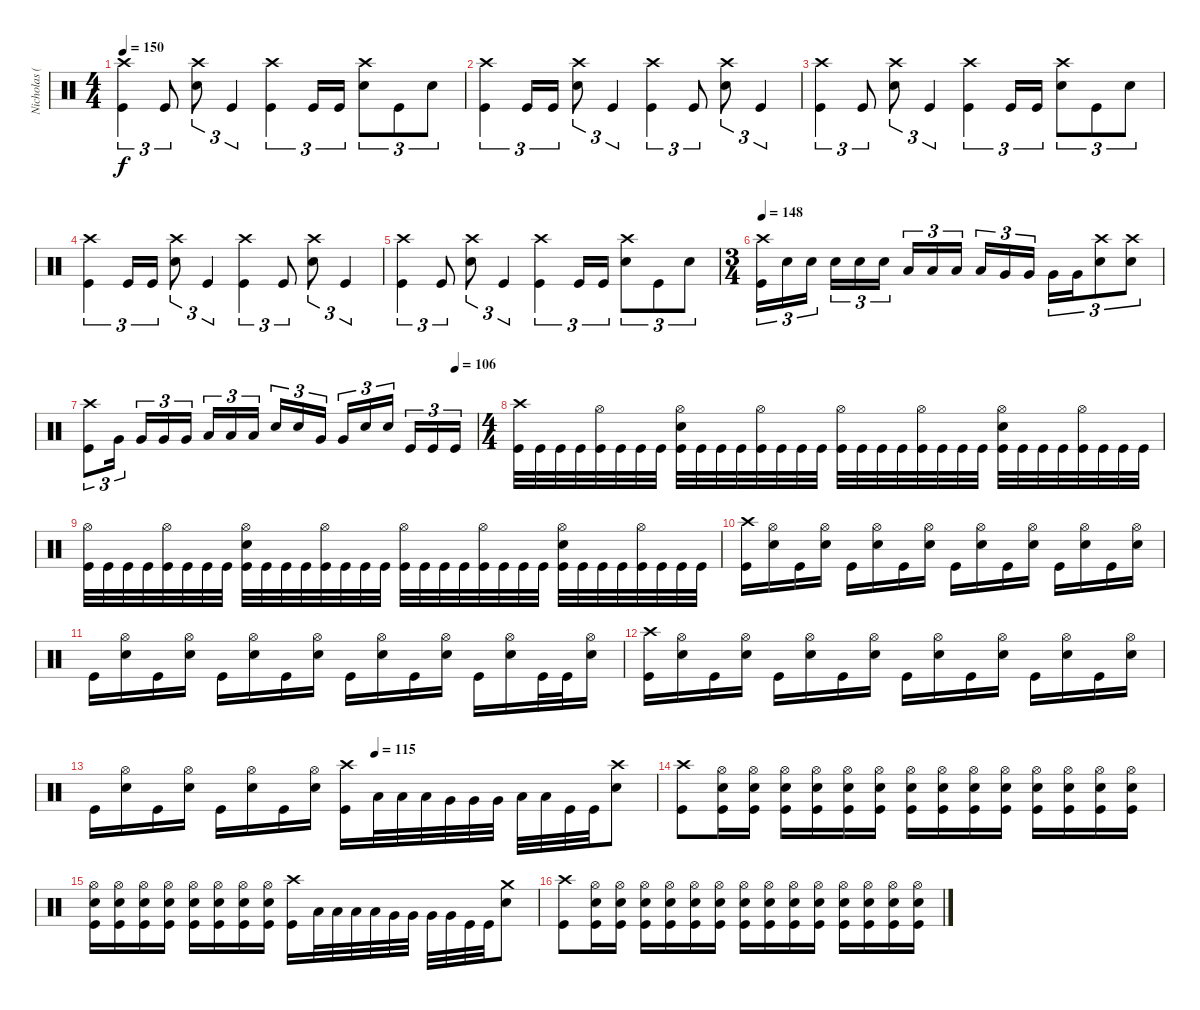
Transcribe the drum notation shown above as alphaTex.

\track ("Nicholas (Drums)" "Nicholas (") {instrument percussion}
\staff {score}
\articulation defaults
\ts (4 4)
\tempo 150
\clef neutral
\ks c
("Crash high (hit)" "Kick (hit)").4{tu (3 2) dy f} "Kick (hit)".8{tu (3 2)} ("Crash high (hit)" "Electric Snare (hit)").8{tu (3 2)} "Kick (hit)".4{tu (3 2)} ("Crash high (hit)" "Kick (hit)").4{tu (3 2)} "Kick (hit)".16{tu (3 2)} "Kick (hit)".16{tu (3 2)} ("Crash high (hit)" "Electric Snare (hit)").8{tu (3 2)} "Kick (hit)".8{tu (3 2)} "Electric Snare (hit)".8{tu (3 2)} |
("Crash high (hit)" "Kick (hit)").4{tu (3 2)} "Kick (hit)".16{tu (3 2)} "Kick (hit)".16{tu (3 2)} ("Crash high (hit)" "Electric Snare (hit)").8{tu (3 2)} "Kick (hit)".4{tu (3 2)} ("Crash high (hit)" "Kick (hit)").4{tu (3 2)} "Kick (hit)".8{tu (3 2)} ("Crash high (hit)" "Electric Snare (hit)").8{tu (3 2)} "Kick (hit)".4{tu (3 2)} |
("Crash high (hit)" "Kick (hit)").4{tu (3 2)} "Kick (hit)".8{tu (3 2)} ("Crash high (hit)" "Electric Snare (hit)").8{tu (3 2)} "Kick (hit)".4{tu (3 2)} ("Crash high (hit)" "Kick (hit)").4{tu (3 2)} "Kick (hit)".16{tu (3 2)} "Kick (hit)".16{tu (3 2)} ("Crash high (hit)" "Electric Snare (hit)").8{tu (3 2)} "Kick (hit)".8{tu (3 2)} "Electric Snare (hit)".8{tu (3 2)} |
("Crash high (hit)" "Kick (hit)").4{tu (3 2)} "Kick (hit)".16{tu (3 2)} "Kick (hit)".16{tu (3 2)} ("Crash high (hit)" "Electric Snare (hit)").8{tu (3 2)} "Kick (hit)".4{tu (3 2)} ("Crash high (hit)" "Kick (hit)").4{tu (3 2)} "Kick (hit)".8{tu (3 2)} ("Crash high (hit)" "Electric Snare (hit)").8{tu (3 2)} "Kick (hit)".4{tu (3 2)} |
("Crash high (hit)" "Kick (hit)").4{tu (3 2)} "Kick (hit)".8{tu (3 2)} ("Crash high (hit)" "Electric Snare (hit)").8{tu (3 2)} "Kick (hit)".4{tu (3 2)} ("Crash high (hit)" "Kick (hit)").4{tu (3 2)} "Kick (hit)".16{tu (3 2)} "Kick (hit)".16{tu (3 2)} ("Crash high (hit)" "Electric Snare (hit)").8{tu (3 2)} "Kick (hit)".8{tu (3 2)} "Electric Snare (hit)".8{tu (3 2)} |
\ts (3 4)
\tempo 148
("Crash high (hit)" "Kick (hit)").16{tu (3 2)} "Electric Snare (hit)".16{tu (3 2)} "Electric Snare (hit)".16{tu (3 2)} "Electric Snare (hit)".16{tu (3 2)} "Electric Snare (hit)".16{tu (3 2)} "Electric Snare (hit)".16{tu (3 2)} "Low Tom (hit)".16{tu (3 2)} "Low Tom (hit)".16{tu (3 2)} "Low Tom (hit)".16{tu (3 2)} "Low Tom (hit)".16{tu (3 2)} "Very Low Tom (hit)".16{tu (3 2)} "Very Low Tom (hit)".16{tu (3 2)} "Very Low Tom (hit)".16{tu (3 2)} "Very Low Tom (hit)".16{tu (3 2)} ("Crash high (hit)" "Electric Snare (hit)").8{tu (3 2)} ("Crash high (hit)" "Electric Snare (hit)").8{tu (3 2)} |
\tempo (106 0.9444444444444444)
("Crash high (hit)" "Kick (hit)").8{tu (3 2)} "Very Low Tom (hit)".16{tu (3 2)} "Very Low Tom (hit)".16{tu (3 2)} "Very Low Tom (hit)".16{tu (3 2)} "Very Low Tom (hit)".16{tu (3 2)} "Low Floor Tom (hit)".16{tu (3 2)} "Low Floor Tom (hit)".16{tu (3 2)} "Low Floor Tom (hit)".16{tu (3 2)} "Electric Snare (hit)".16{tu (3 2)} "Electric Snare (hit)".16{tu (3 2)} "Very Low Tom (hit)".16{tu (3 2)} "Very Low Tom (hit)".16{tu (3 2)} "Electric Snare (hit)".16{tu (3 2)} "Electric Snare (hit)".16{tu (3 2)} "Kick (hit)".16{tu (3 2)} "Kick (hit)".16{tu (3 2)} "Kick (hit)".16{tu (3 2)} |
\ts (4 4)
("Crash high (hit)" "Kick (hit)").32 "Kick (hit)".32 "Kick (hit)".32 "Kick (hit)".32 ("Hi-Hat (open)" "Kick (hit)").32 "Kick (hit)".32 "Kick (hit)".32 "Kick (hit)".32 ("Hi-Hat (open)" "Electric Snare (hit)" "Kick (hit)").32 "Kick (hit)".32 "Kick (hit)".32 "Kick (hit)".32 ("Hi-Hat (open)" "Kick (hit)").32 "Kick (hit)".32 "Kick (hit)".32 "Kick (hit)".32 ("Hi-Hat (open)" "Kick (hit)").32 "Kick (hit)".32 "Kick (hit)".32 "Kick (hit)".32 ("Hi-Hat (open)" "Kick (hit)").32 "Kick (hit)".32 "Kick (hit)".32 "Kick (hit)".32 ("Hi-Hat (open)" "Electric Snare (hit)" "Kick (hit)").32 "Kick (hit)".32 "Kick (hit)".32 "Kick (hit)".32 ("Hi-Hat (open)" "Kick (hit)").32 "Kick (hit)".32 "Kick (hit)".32 "Kick (hit)".32 |
("Hi-Hat (open)" "Kick (hit)").32 "Kick (hit)".32 "Kick (hit)".32 "Kick (hit)".32 ("Hi-Hat (open)" "Kick (hit)").32 "Kick (hit)".32 "Kick (hit)".32 "Kick (hit)".32 ("Hi-Hat (open)" "Electric Snare (hit)" "Kick (hit)").32 "Kick (hit)".32 "Kick (hit)".32 "Kick (hit)".32 ("Hi-Hat (open)" "Kick (hit)").32 "Kick (hit)".32 "Kick (hit)".32 "Kick (hit)".32 ("Hi-Hat (open)" "Kick (hit)").32 "Kick (hit)".32 "Kick (hit)".32 "Kick (hit)".32 ("Hi-Hat (open)" "Kick (hit)").32 "Kick (hit)".32 "Kick (hit)".32 "Kick (hit)".32 ("Hi-Hat (open)" "Electric Snare (hit)" "Kick (hit)").32 "Kick (hit)".32 "Kick (hit)".32 "Kick (hit)".32 ("Hi-Hat (open)" "Kick (hit)").32 "Kick (hit)".32 "Kick (hit)".32 "Kick (hit)".32 |
("Crash high (hit)" "Kick (hit)").16 ("Hi-Hat (open)" "Electric Snare (hit)").16 "Kick (hit)".16 ("Hi-Hat (open)" "Electric Snare (hit)").16 "Kick (hit)".16 ("Hi-Hat (open)" "Electric Snare (hit)").16 "Kick (hit)".16 ("Hi-Hat (open)" "Electric Snare (hit)").16 "Kick (hit)".16 ("Hi-Hat (open)" "Electric Snare (hit)").16 "Kick (hit)".16 ("Hi-Hat (open)" "Electric Snare (hit)").16 "Kick (hit)".16 ("Hi-Hat (open)" "Electric Snare (hit)").16 "Kick (hit)".16 ("Hi-Hat (open)" "Electric Snare (hit)").16 |
"Kick (hit)".16 ("Hi-Hat (open)" "Electric Snare (hit)").16 "Kick (hit)".16 ("Hi-Hat (open)" "Electric Snare (hit)").16 "Kick (hit)".16 ("Hi-Hat (open)" "Electric Snare (hit)").16 "Kick (hit)".16 ("Hi-Hat (open)" "Electric Snare (hit)").16 "Kick (hit)".16 ("Hi-Hat (open)" "Electric Snare (hit)").16 "Kick (hit)".16 ("Hi-Hat (open)" "Electric Snare (hit)").16 "Kick (hit)".16 ("Hi-Hat (open)" "Electric Snare (hit)").16 "Kick (hit)".32 "Kick (hit)".32 ("Hi-Hat (open)" "Electric Snare (hit)").16 |
("Crash high (hit)" "Kick (hit)").16 ("Hi-Hat (open)" "Electric Snare (hit)").16 "Kick (hit)".16 ("Hi-Hat (open)" "Electric Snare (hit)").16 "Kick (hit)".16 ("Hi-Hat (open)" "Electric Snare (hit)").16 "Kick (hit)".16 ("Hi-Hat (open)" "Electric Snare (hit)").16 "Kick (hit)".16 ("Hi-Hat (open)" "Electric Snare (hit)").16 "Kick (hit)".16 ("Hi-Hat (open)" "Electric Snare (hit)").16 "Kick (hit)".16 ("Hi-Hat (open)" "Electric Snare (hit)").16 "Kick (hit)".16 ("Hi-Hat (open)" "Electric Snare (hit)").16 |
\tempo (115 0.5)
"Kick (hit)".16 ("Hi-Hat (open)" "Electric Snare (hit)").16 "Kick (hit)".16 ("Hi-Hat (open)" "Electric Snare (hit)").16 "Kick (hit)".16 ("Hi-Hat (open)" "Electric Snare (hit)").16 "Kick (hit)".16 ("Hi-Hat (open)" "Electric Snare (hit)").16 ("Crash high (hit)" "Kick (hit)").16 "Low Tom (hit)".32 "Low Tom (hit)".32 "Low Tom (hit)".32 "Very Low Tom (hit)".32 "Very Low Tom (hit)".32 "Very Low Tom (hit)".32 "Low Floor Tom (hit)".32 "Low Floor Tom (hit)".32 "Kick (hit)".32 "Kick (hit)".32 ("Crash high (hit)" "Electric Snare (hit)").8 |
("Crash high (hit)" "Kick (hit)").8 ("Hi-Hat (open)" "Electric Snare (hit)" "Kick (hit)").16 ("Hi-Hat (open)" "Electric Snare (hit)" "Kick (hit)").16 ("Hi-Hat (open)" "Electric Snare (hit)" "Kick (hit)").16 ("Hi-Hat (open)" "Electric Snare (hit)" "Kick (hit)").16 ("Hi-Hat (open)" "Electric Snare (hit)" "Kick (hit)").16 ("Hi-Hat (open)" "Electric Snare (hit)" "Kick (hit)").16 ("Hi-Hat (open)" "Electric Snare (hit)" "Kick (hit)").16 ("Hi-Hat (open)" "Electric Snare (hit)" "Kick (hit)").16 ("Hi-Hat (open)" "Electric Snare (hit)" "Kick (hit)").16 ("Hi-Hat (open)" "Electric Snare (hit)" "Kick (hit)").16 ("Hi-Hat (open)" "Electric Snare (hit)" "Kick (hit)").16 ("Hi-Hat (open)" "Electric Snare (hit)" "Kick (hit)").16 ("Hi-Hat (open)" "Electric Snare (hit)" "Kick (hit)").16 ("Hi-Hat (open)" "Electric Snare (hit)" "Kick (hit)").16 |
("Hi-Hat (open)" "Electric Snare (hit)" "Kick (hit)").16 ("Hi-Hat (open)" "Electric Snare (hit)" "Kick (hit)").16 ("Hi-Hat (open)" "Electric Snare (hit)" "Kick (hit)").16 ("Hi-Hat (open)" "Electric Snare (hit)" "Kick (hit)").16 ("Hi-Hat (open)" "Electric Snare (hit)" "Kick (hit)").16 ("Hi-Hat (open)" "Electric Snare (hit)" "Kick (hit)").16 ("Hi-Hat (open)" "Electric Snare (hit)" "Kick (hit)").16 ("Hi-Hat (open)" "Electric Snare (hit)" "Kick (hit)").16 ("Crash high (hit)" "Kick (hit)").16 "Low Tom (hit)".32 "Low Tom (hit)".32 "Low Tom (hit)".32 "Low Tom (hit)".32 "Very Low Tom (hit)".32 "Very Low Tom (hit)".32 "Very Low Tom (hit)".32 "Very Low Tom (hit)".32 "Kick (hit)".32 "Kick (hit)".32 ("Crash medium (hit)" "Electric Snare (hit)").8 |
("Crash high (hit)" "Kick (hit)").8 ("Hi-Hat (open)" "Electric Snare (hit)" "Kick (hit)").16 ("Hi-Hat (open)" "Electric Snare (hit)" "Kick (hit)").16 ("Hi-Hat (open)" "Electric Snare (hit)" "Kick (hit)").16 ("Hi-Hat (open)" "Electric Snare (hit)" "Kick (hit)").16 ("Hi-Hat (open)" "Electric Snare (hit)" "Kick (hit)").16 ("Hi-Hat (open)" "Electric Snare (hit)" "Kick (hit)").16 ("Hi-Hat (open)" "Electric Snare (hit)" "Kick (hit)").16 ("Hi-Hat (open)" "Electric Snare (hit)" "Kick (hit)").16 ("Hi-Hat (open)" "Electric Snare (hit)" "Kick (hit)").16 ("Hi-Hat (open)" "Electric Snare (hit)" "Kick (hit)").16 ("Hi-Hat (open)" "Electric Snare (hit)" "Kick (hit)").16 ("Hi-Hat (open)" "Electric Snare (hit)" "Kick (hit)").16 ("Hi-Hat (open)" "Electric Snare (hit)" "Kick (hit)").16 ("Hi-Hat (open)" "Electric Snare (hit)" "Kick (hit)").16
